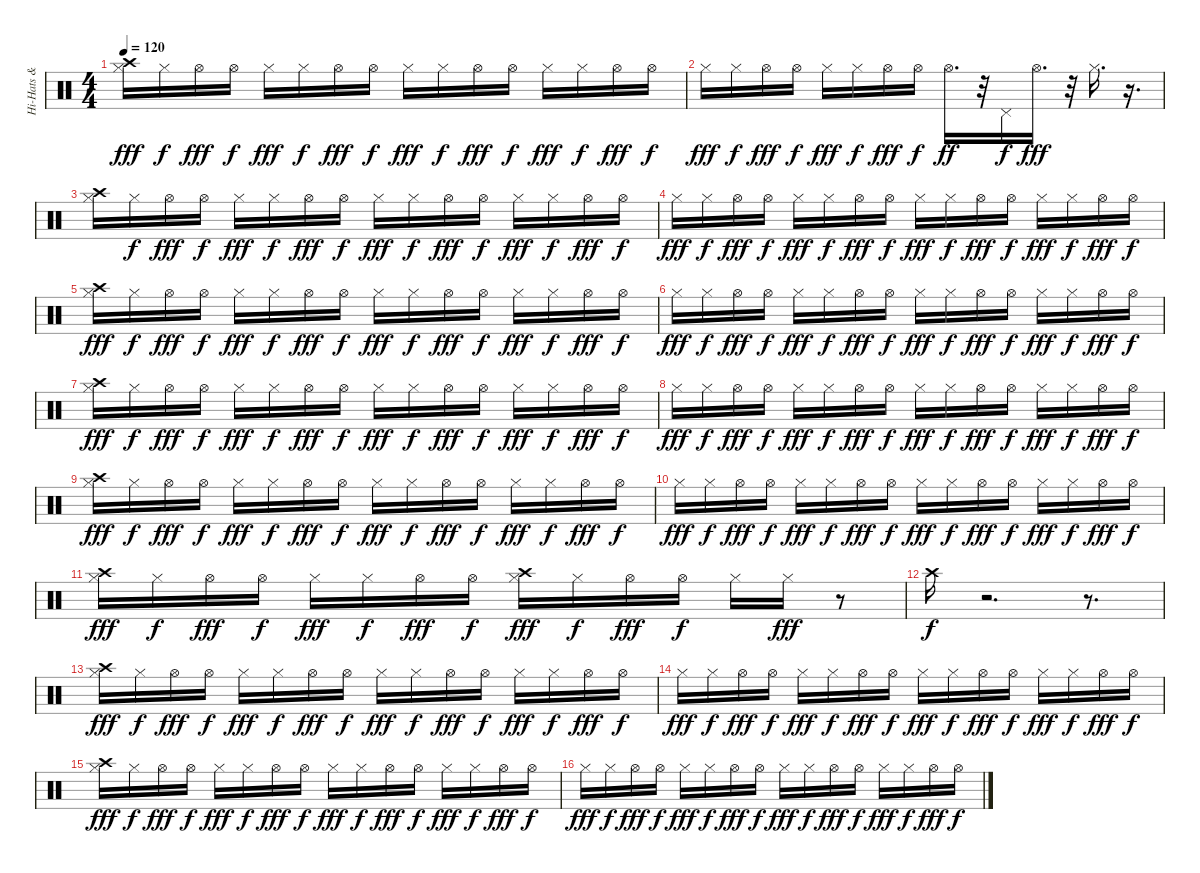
\track ("Hi-Hats & Cymbal" "Hi-Hats & ") {instrument percussion}
\staff {score}
\articulation defaults
\ts (4 4)
\tempo 120
\clef neutral
\ks c
("Hi-Hat (closed)" "Crash high (hit)").16{dy fff} "Hi-Hat (closed)".16{dy f} "Hi-Hat (open)".16{dy fff} "Hi-Hat (open)".16{dy f} "Hi-Hat (closed)".16{dy fff} "Hi-Hat (closed)".16{dy f} "Hi-Hat (open)".16{dy fff} "Hi-Hat (open)".16{dy f} "Hi-Hat (closed)".16{dy fff} "Hi-Hat (closed)".16{dy f} "Hi-Hat (open)".16{dy fff} "Hi-Hat (open)".16{dy f} "Hi-Hat (closed)".16{dy fff} "Hi-Hat (closed)".16{dy f} "Hi-Hat (open)".16{dy fff} "Hi-Hat (open)".16{dy f} |
"Hi-Hat (closed)".16{dy fff} "Hi-Hat (closed)".16{dy f} "Hi-Hat (open)".16{dy fff} "Hi-Hat (open)".16{dy f} "Hi-Hat (closed)".16{dy fff} "Hi-Hat (closed)".16{dy f} "Hi-Hat (open)".16{dy fff} "Hi-Hat (open)".16{dy f} "Hi-Hat (open)".16{d dy ff} r.32 "Pedal Hi-Hat (hit)".16{dy f} "Hi-Hat (open)".16{d dy fff} r.32 "Hi-Hat (closed)".16{d} r.16{d} |
("Hi-Hat (closed)" "Crash high (hit)").16 "Hi-Hat (closed)".16{dy f} "Hi-Hat (open)".16{dy fff} "Hi-Hat (open)".16{dy f} "Hi-Hat (closed)".16{dy fff} "Hi-Hat (closed)".16{dy f} "Hi-Hat (open)".16{dy fff} "Hi-Hat (open)".16{dy f} "Hi-Hat (closed)".16{dy fff} "Hi-Hat (closed)".16{dy f} "Hi-Hat (open)".16{dy fff} "Hi-Hat (open)".16{dy f} "Hi-Hat (closed)".16{dy fff} "Hi-Hat (closed)".16{dy f} "Hi-Hat (open)".16{dy fff} "Hi-Hat (open)".16{dy f} |
"Hi-Hat (closed)".16{dy fff} "Hi-Hat (closed)".16{dy f} "Hi-Hat (open)".16{dy fff} "Hi-Hat (open)".16{dy f} "Hi-Hat (closed)".16{dy fff} "Hi-Hat (closed)".16{dy f} "Hi-Hat (open)".16{dy fff} "Hi-Hat (open)".16{dy f} "Hi-Hat (closed)".16{dy fff} "Hi-Hat (closed)".16{dy f} "Hi-Hat (open)".16{dy fff} "Hi-Hat (open)".16{dy f} "Hi-Hat (closed)".16{dy fff} "Hi-Hat (closed)".16{dy f} "Hi-Hat (open)".16{dy fff} "Hi-Hat (open)".16{dy f} |
("Hi-Hat (closed)" "Crash high (hit)").16{dy fff} "Hi-Hat (closed)".16{dy f} "Hi-Hat (open)".16{dy fff} "Hi-Hat (open)".16{dy f} "Hi-Hat (closed)".16{dy fff} "Hi-Hat (closed)".16{dy f} "Hi-Hat (open)".16{dy fff} "Hi-Hat (open)".16{dy f} "Hi-Hat (closed)".16{dy fff} "Hi-Hat (closed)".16{dy f} "Hi-Hat (open)".16{dy fff} "Hi-Hat (open)".16{dy f} "Hi-Hat (closed)".16{dy fff} "Hi-Hat (closed)".16{dy f} "Hi-Hat (open)".16{dy fff} "Hi-Hat (open)".16{dy f} |
"Hi-Hat (closed)".16{dy fff} "Hi-Hat (closed)".16{dy f} "Hi-Hat (open)".16{dy fff} "Hi-Hat (open)".16{dy f} "Hi-Hat (closed)".16{dy fff} "Hi-Hat (closed)".16{dy f} "Hi-Hat (open)".16{dy fff} "Hi-Hat (open)".16{dy f} "Hi-Hat (closed)".16{dy fff} "Hi-Hat (closed)".16{dy f} "Hi-Hat (open)".16{dy fff} "Hi-Hat (open)".16{dy f} "Hi-Hat (closed)".16{dy fff} "Hi-Hat (closed)".16{dy f} "Hi-Hat (open)".16{dy fff} "Hi-Hat (open)".16{dy f} |
("Hi-Hat (closed)" "Crash high (hit)").16{dy fff} "Hi-Hat (closed)".16{dy f} "Hi-Hat (open)".16{dy fff} "Hi-Hat (open)".16{dy f} "Hi-Hat (closed)".16{dy fff} "Hi-Hat (closed)".16{dy f} "Hi-Hat (open)".16{dy fff} "Hi-Hat (open)".16{dy f} "Hi-Hat (closed)".16{dy fff} "Hi-Hat (closed)".16{dy f} "Hi-Hat (open)".16{dy fff} "Hi-Hat (open)".16{dy f} "Hi-Hat (closed)".16{dy fff} "Hi-Hat (closed)".16{dy f} "Hi-Hat (open)".16{dy fff} "Hi-Hat (open)".16{dy f} |
"Hi-Hat (closed)".16{dy fff} "Hi-Hat (closed)".16{dy f} "Hi-Hat (open)".16{dy fff} "Hi-Hat (open)".16{dy f} "Hi-Hat (closed)".16{dy fff} "Hi-Hat (closed)".16{dy f} "Hi-Hat (open)".16{dy fff} "Hi-Hat (open)".16{dy f} "Hi-Hat (closed)".16{dy fff} "Hi-Hat (closed)".16{dy f} "Hi-Hat (open)".16{dy fff} "Hi-Hat (open)".16{dy f} "Hi-Hat (closed)".16{dy fff} "Hi-Hat (closed)".16{dy f} "Hi-Hat (open)".16{dy fff} "Hi-Hat (open)".16{dy f} |
("Hi-Hat (closed)" "Crash high (hit)").16{dy fff} "Hi-Hat (closed)".16{dy f} "Hi-Hat (open)".16{dy fff} "Hi-Hat (open)".16{dy f} "Hi-Hat (closed)".16{dy fff} "Hi-Hat (closed)".16{dy f} "Hi-Hat (open)".16{dy fff} "Hi-Hat (open)".16{dy f} "Hi-Hat (closed)".16{dy fff} "Hi-Hat (closed)".16{dy f} "Hi-Hat (open)".16{dy fff} "Hi-Hat (open)".16{dy f} "Hi-Hat (closed)".16{dy fff} "Hi-Hat (closed)".16{dy f} "Hi-Hat (open)".16{dy fff} "Hi-Hat (open)".16{dy f} |
"Hi-Hat (closed)".16{dy fff} "Hi-Hat (closed)".16{dy f} "Hi-Hat (open)".16{dy fff} "Hi-Hat (open)".16{dy f} "Hi-Hat (closed)".16{dy fff} "Hi-Hat (closed)".16{dy f} "Hi-Hat (open)".16{dy fff} "Hi-Hat (open)".16{dy f} "Hi-Hat (closed)".16{dy fff} "Hi-Hat (closed)".16{dy f} "Hi-Hat (open)".16{dy fff} "Hi-Hat (open)".16{dy f} "Hi-Hat (closed)".16{dy fff} "Hi-Hat (closed)".16{dy f} "Hi-Hat (open)".16{dy fff} "Hi-Hat (open)".16{dy f} |
("Hi-Hat (closed)" "Crash high (hit)").16{dy fff} "Hi-Hat (closed)".16{dy f} "Hi-Hat (open)".16{dy fff} "Hi-Hat (open)".16{dy f} "Hi-Hat (closed)".16{dy fff} "Hi-Hat (closed)".16{dy f} "Hi-Hat (open)".16{dy fff} "Hi-Hat (open)".16{dy f} ("Hi-Hat (closed)" "Crash high (hit)").16{dy fff} "Hi-Hat (closed)".16{dy f} "Hi-Hat (open)".16{dy fff} "Hi-Hat (open)".16{dy f} "Hi-Hat (closed)".16 "Hi-Hat (closed)".16{dy fff} r.8 |
"Crash high (hit)".16{dy f} r.2{d} r.8{d} |
("Hi-Hat (closed)" "Crash high (hit)").16{dy fff} "Hi-Hat (closed)".16{dy f} "Hi-Hat (open)".16{dy fff} "Hi-Hat (open)".16{dy f} "Hi-Hat (closed)".16{dy fff} "Hi-Hat (closed)".16{dy f} "Hi-Hat (open)".16{dy fff} "Hi-Hat (open)".16{dy f} "Hi-Hat (closed)".16{dy fff} "Hi-Hat (closed)".16{dy f} "Hi-Hat (open)".16{dy fff} "Hi-Hat (open)".16{dy f} "Hi-Hat (closed)".16{dy fff} "Hi-Hat (closed)".16{dy f} "Hi-Hat (open)".16{dy fff} "Hi-Hat (open)".16{dy f} |
"Hi-Hat (closed)".16{dy fff} "Hi-Hat (closed)".16{dy f} "Hi-Hat (open)".16{dy fff} "Hi-Hat (open)".16{dy f} "Hi-Hat (closed)".16{dy fff} "Hi-Hat (closed)".16{dy f} "Hi-Hat (open)".16{dy fff} "Hi-Hat (open)".16{dy f} "Hi-Hat (closed)".16{dy fff} "Hi-Hat (closed)".16{dy f} "Hi-Hat (open)".16{dy fff} "Hi-Hat (open)".16{dy f} "Hi-Hat (closed)".16{dy fff} "Hi-Hat (closed)".16{dy f} "Hi-Hat (open)".16{dy fff} "Hi-Hat (open)".16{dy f} |
("Hi-Hat (closed)" "Crash high (hit)").16{dy fff} "Hi-Hat (closed)".16{dy f} "Hi-Hat (open)".16{dy fff} "Hi-Hat (open)".16{dy f} "Hi-Hat (closed)".16{dy fff} "Hi-Hat (closed)".16{dy f} "Hi-Hat (open)".16{dy fff} "Hi-Hat (open)".16{dy f} "Hi-Hat (closed)".16{dy fff} "Hi-Hat (closed)".16{dy f} "Hi-Hat (open)".16{dy fff} "Hi-Hat (open)".16{dy f} "Hi-Hat (closed)".16{dy fff} "Hi-Hat (closed)".16{dy f} "Hi-Hat (open)".16{dy fff} "Hi-Hat (open)".16{dy f} |
"Hi-Hat (closed)".16{dy fff} "Hi-Hat (closed)".16{dy f} "Hi-Hat (open)".16{dy fff} "Hi-Hat (open)".16{dy f} "Hi-Hat (closed)".16{dy fff} "Hi-Hat (closed)".16{dy f} "Hi-Hat (open)".16{dy fff} "Hi-Hat (open)".16{dy f} "Hi-Hat (closed)".16{dy fff} "Hi-Hat (closed)".16{dy f} "Hi-Hat (open)".16{dy fff} "Hi-Hat (open)".16{dy f} "Hi-Hat (closed)".16{dy fff} "Hi-Hat (closed)".16{dy f} "Hi-Hat (open)".16{dy fff} "Hi-Hat (open)".16{dy f}
